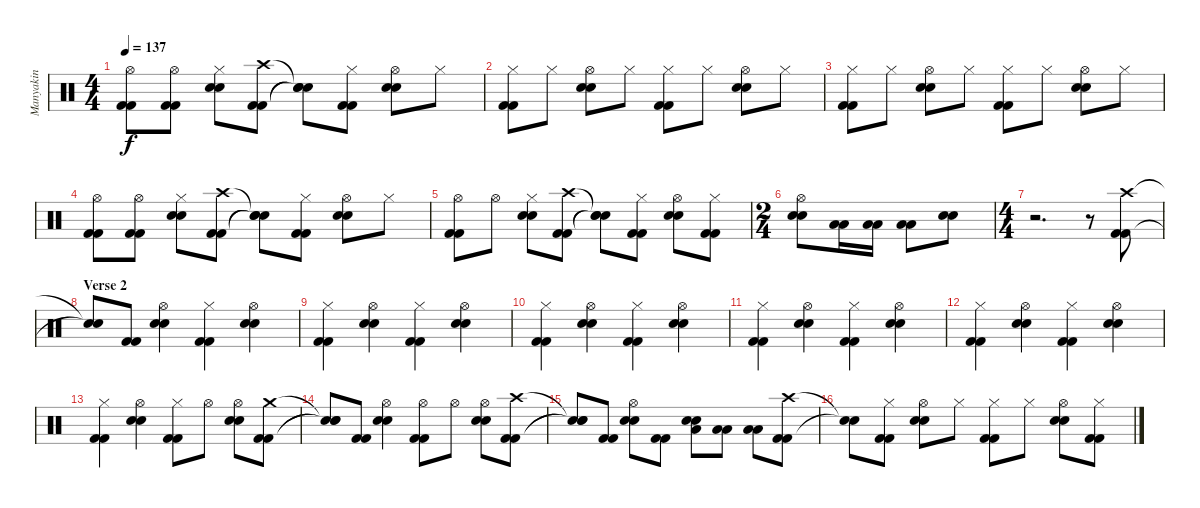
\track ("Manyakin" "Manyakin") {instrument percussion}
\staff {score}
\articulation defaults
\ts (4 4)
\tempo 137
\clef neutral
\ks c
("Hi-Hat (open)" "Kick (hit) 2" "Kick (hit) 2").8{dy f} ("Hi-Hat (open)" "Kick (hit) 2" "Kick (hit) 2").8 ("Hi-Hat (closed)" "Electric Snare (hit)" "Electric Snare (hit)").8 ("Crash high (hit)" "Kick (hit) 2" "Kick (hit) 2").8 ("Snare (hit)"{t} "Snare (hit)"{t} "Snare (hit)"{t}).8 ("Hi-Hat (closed)" "Kick (hit) 2" "Kick (hit) 2").8 ("Hi-Hat (open)" "Electric Snare (hit)" "Electric Snare (hit)").8 "Hi-Hat (closed)".8 |
("Hi-Hat (closed)" "Kick (hit) 2" "Kick (hit) 2").8 "Hi-Hat (closed)".8 ("Hi-Hat (open)" "Electric Snare (hit)" "Electric Snare (hit)").8 "Hi-Hat (closed)".8 ("Hi-Hat (closed)" "Kick (hit) 2" "Kick (hit) 2").8 "Hi-Hat (closed)".8 ("Hi-Hat (open)" "Electric Snare (hit)" "Electric Snare (hit)").8 "Hi-Hat (closed)".8 |
("Hi-Hat (closed)" "Kick (hit) 2" "Kick (hit) 2").8 "Hi-Hat (closed)".8 ("Hi-Hat (open)" "Electric Snare (hit)" "Electric Snare (hit)").8 "Hi-Hat (closed)".8 ("Hi-Hat (closed)" "Kick (hit) 2" "Kick (hit) 2").8 "Hi-Hat (closed)".8 ("Hi-Hat (open)" "Electric Snare (hit)" "Electric Snare (hit)").8 "Hi-Hat (closed)".8 |
("Hi-Hat (open)" "Kick (hit) 2" "Kick (hit) 2").8 ("Hi-Hat (open)" "Kick (hit) 2" "Kick (hit) 2").8 ("Hi-Hat (closed)" "Electric Snare (hit)" "Electric Snare (hit)").8 ("Crash high (hit)" "Kick (hit) 2" "Kick (hit) 2").8 ("Snare (hit)"{t} "Snare (hit)"{t} "Snare (hit)"{t}).8 ("Hi-Hat (closed)" "Kick (hit) 2" "Kick (hit) 2").8 ("Hi-Hat (open)" "Electric Snare (hit)" "Electric Snare (hit)").8 "Hi-Hat (closed)".8 |
("Hi-Hat (open)" "Kick (hit) 2" "Kick (hit) 2").8 "Hi-Hat (open)".8 ("Hi-Hat (closed)" "Electric Snare (hit)" "Electric Snare (hit)").8 ("Crash high (hit)" "Kick (hit) 2" "Kick (hit) 2").8 ("Snare (hit)"{t} "Snare (hit)"{t} "Snare (hit)"{t}).8 ("Hi-Hat (closed)" "Kick (hit) 2" "Kick (hit) 2").8 ("Hi-Hat (open)" "Electric Snare (hit)" "Electric Snare (hit)").8 ("Hi-Hat (closed)" "Kick (hit) 2" "Kick (hit) 2").8 |
\ts (2 4)
("Hi-Hat (open)" "Electric Snare (hit)" "Electric Snare (hit)").8 ("Low Tom (hit)" "Low Tom (hit)").16 ("Low Tom (hit)" "Low Tom (hit)").16 ("Low Tom (hit)" "Low Tom (hit)").8 ("Electric Snare (hit)" "Electric Snare (hit)").8 |
\ts (4 4)
r.2{d} r.8 ("Crash high (hit)" "Kick (hit) 2" "Kick (hit) 2").8 |
\section ("" "Verse 2")
("Snare (hit)"{t} "Snare (hit)"{t}).8 ("Kick (hit) 2" "Kick (hit) 2").8 ("Hi-Hat (open)" "Electric Snare (hit)" "Electric Snare (hit)").4 ("Hi-Hat (closed)" "Kick (hit) 2" "Kick (hit) 2").4 ("Hi-Hat (open)" "Electric Snare (hit)" "Electric Snare (hit)").4 |
("Hi-Hat (closed)" "Kick (hit) 2" "Kick (hit) 2").4 ("Hi-Hat (open)" "Electric Snare (hit)" "Electric Snare (hit)").4 ("Hi-Hat (closed)" "Kick (hit) 2" "Kick (hit) 2").4 ("Hi-Hat (open)" "Electric Snare (hit)" "Electric Snare (hit)").4 |
("Hi-Hat (closed)" "Kick (hit) 2" "Kick (hit) 2").4 ("Hi-Hat (open)" "Electric Snare (hit)" "Electric Snare (hit)").4 ("Hi-Hat (closed)" "Kick (hit) 2" "Kick (hit) 2").4 ("Hi-Hat (open)" "Electric Snare (hit)" "Electric Snare (hit)").4 |
("Hi-Hat (closed)" "Kick (hit) 2" "Kick (hit) 2").4 ("Hi-Hat (open)" "Electric Snare (hit)" "Electric Snare (hit)").4 ("Hi-Hat (closed)" "Kick (hit) 2" "Kick (hit) 2").4 ("Hi-Hat (open)" "Electric Snare (hit)" "Electric Snare (hit)").4 |
("Hi-Hat (closed)" "Kick (hit) 2" "Kick (hit) 2").4 ("Hi-Hat (open)" "Electric Snare (hit)" "Electric Snare (hit)").4 ("Hi-Hat (closed)" "Kick (hit) 2" "Kick (hit) 2").4 ("Hi-Hat (open)" "Electric Snare (hit)" "Electric Snare (hit)").4 |
("Hi-Hat (closed)" "Kick (hit) 2" "Kick (hit) 2").4 ("Hi-Hat (open)" "Electric Snare (hit)" "Electric Snare (hit)").4 ("Hi-Hat (closed)" "Kick (hit) 2" "Kick (hit) 2").8 "Hi-Hat (open)".8 ("Hi-Hat (open)" "Electric Snare (hit)" "Electric Snare (hit)").8 ("Crash medium (hit)" "Kick (hit) 2" "Kick (hit) 2").8 |
("Snare (hit)"{t} "Snare (hit)"{t} "Snare (hit)"{t}).8 ("Kick (hit) 2" "Kick (hit) 2").8 ("Hi-Hat (open)" "Electric Snare (hit)" "Electric Snare (hit)").4 ("Hi-Hat (open)" "Kick (hit) 2" "Kick (hit) 2").8 "Hi-Hat (open)".8 ("Hi-Hat (open)" "Electric Snare (hit)" "Electric Snare (hit)").8 ("Crash high (hit)" "Kick (hit) 2" "Kick (hit) 2").8 |
("Snare (hit)"{t} "Snare (hit)"{t} "Snare (hit)"{t}).8 ("Kick (hit) 2" "Kick (hit) 2").8 ("Hi-Hat (open)" "Electric Snare (hit)" "Electric Snare (hit)").8 ("Kick (hit) 2" "Kick (hit) 2").8 ("Electric Snare (hit)" "Electric Snare (hit)" "Low Tom (hit)").8 ("Low Tom (hit)" "Low Tom (hit)").8 ("Low Tom (hit)" "Low Tom (hit)").8 ("Crash high (hit)" "Kick (hit) 2" "Kick (hit) 2").8 |
("Snare (hit)"{t} "Snare (hit)"{t}).8 ("Hi-Hat (closed)" "Kick (hit) 2" "Kick (hit) 2").8 ("Hi-Hat (open)" "Electric Snare (hit)" "Electric Snare (hit)").8 "Hi-Hat (closed)".8 ("Hi-Hat (closed)" "Kick (hit) 2" "Kick (hit) 2").8 "Hi-Hat (closed)".8 ("Hi-Hat (open)" "Electric Snare (hit)" "Electric Snare (hit)").8 ("Hi-Hat (closed)" "Kick (hit) 2" "Kick (hit) 2").8
